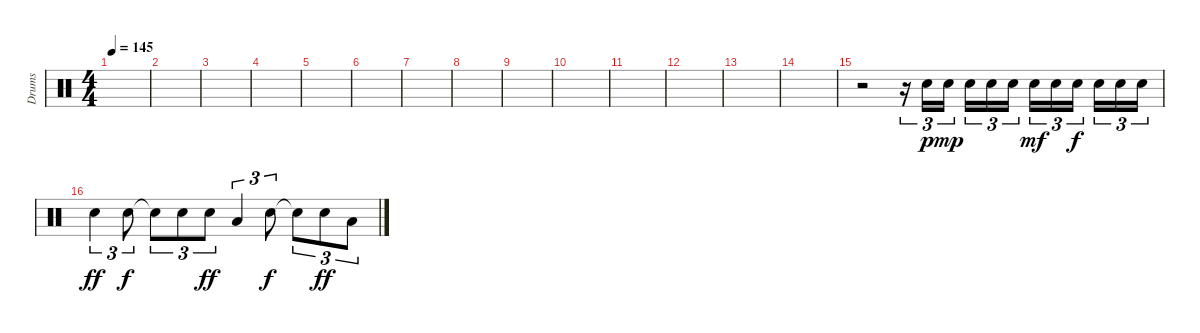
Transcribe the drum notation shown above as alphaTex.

\track ("Drums" "Drums") {instrument percussion}
\staff {score}
\articulation defaults
\ts (4 4)
\tempo 145
\clef neutral
\ks c
|
|
|
|
|
|
|
|
|
|
|
|
|
|
r.2 r.16{tu (3 2)} "Snare (hit) 2".16{tu (3 2) dy p} "Snare (hit) 2".16{tu (3 2) dy mp} "Snare (hit) 2".16{tu (3 2)} "Snare (hit) 2".16{tu (3 2)} "Snare (hit) 2".16{tu (3 2)} "Snare (hit) 2".16{tu (3 2) dy mf} "Snare (hit) 2".16{tu (3 2)} "Snare (hit) 2".16{tu (3 2) dy f} "Snare (hit) 2".16{tu (3 2)} "Snare (hit) 2".16{tu (3 2)} "Snare (hit) 2".16{tu (3 2)} |
"Snare (hit) 2".4{tu (3 2) dy ff} "Snare (hit) 2".8{tu (3 2) dy f} "Snare (hit)"{t}.8{tu (3 2)} "Snare (hit) 2".8{tu (3 2)} "Snare (hit) 2".8{tu (3 2) dy ff} "Low Tom (hit)".4{tu (3 2)} "Snare (hit) 2".8{tu (3 2) dy f} "Snare (hit)"{t}.8{tu (3 2)} "Snare (hit) 2".8{tu (3 2) dy ff} "Low Tom (hit)".8{tu (3 2)}
